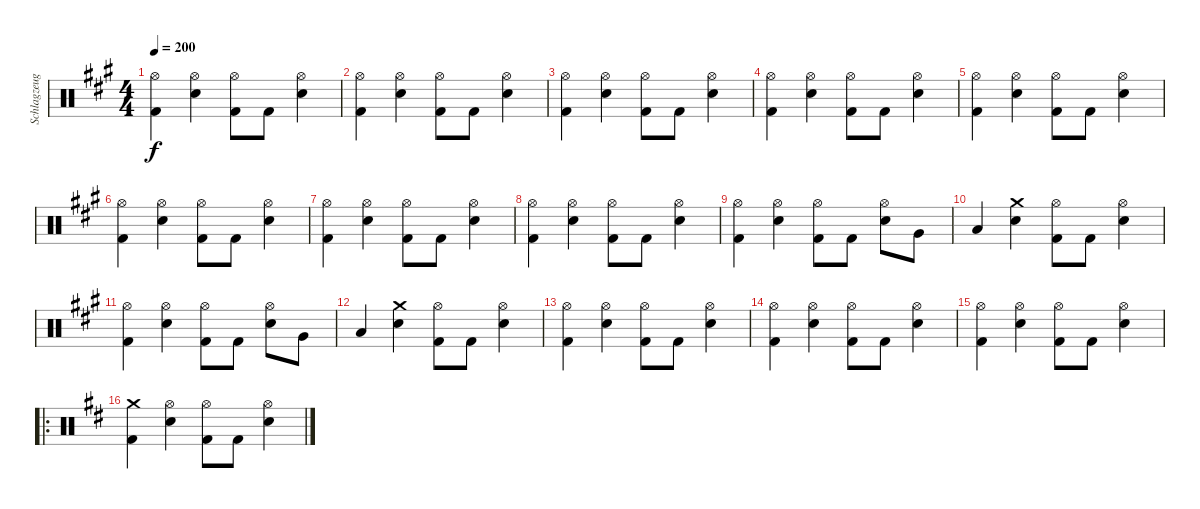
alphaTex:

\track ("Schlagzeug" "Schlagzeug") {instrument percussion}
\staff {score}
\articulation defaults
\ts (4 4)
\tempo 200
\clef neutral
\ks a
("Hi-Hat (open)" "Kick (hit) 2").4{dy f} ("Hi-Hat (open)" "Snare (hit) 2").4 ("Hi-Hat (open)" "Kick (hit) 2").8 "Kick (hit) 2".8 ("Hi-Hat (open)" "Snare (hit) 2").4 |
("Hi-Hat (open)" "Kick (hit) 2").4 ("Hi-Hat (open)" "Snare (hit) 2").4 ("Hi-Hat (open)" "Kick (hit) 2").8 "Kick (hit) 2".8 ("Hi-Hat (open)" "Snare (hit) 2").4 |
("Hi-Hat (open)" "Kick (hit) 2").4 ("Hi-Hat (open)" "Snare (hit) 2").4 ("Hi-Hat (open)" "Kick (hit) 2").8 "Kick (hit) 2".8 ("Hi-Hat (open)" "Snare (hit) 2").4 |
("Hi-Hat (open)" "Kick (hit) 2").4 ("Hi-Hat (open)" "Snare (hit) 2").4 ("Hi-Hat (open)" "Kick (hit) 2").8 "Kick (hit) 2".8 ("Hi-Hat (open)" "Snare (hit) 2").4 |
("Hi-Hat (open)" "Kick (hit) 2").4 ("Hi-Hat (open)" "Snare (hit) 2").4 ("Hi-Hat (open)" "Kick (hit) 2").8 "Kick (hit) 2".8 ("Hi-Hat (open)" "Snare (hit) 2").4 |
("Hi-Hat (open)" "Kick (hit) 2").4 ("Hi-Hat (open)" "Snare (hit) 2").4 ("Hi-Hat (open)" "Kick (hit) 2").8 "Kick (hit) 2".8 ("Hi-Hat (open)" "Snare (hit) 2").4 |
("Hi-Hat (open)" "Kick (hit) 2").4 ("Hi-Hat (open)" "Snare (hit) 2").4 ("Hi-Hat (open)" "Kick (hit) 2").8 "Kick (hit) 2".8 ("Hi-Hat (open)" "Snare (hit) 2").4 |
("Hi-Hat (open)" "Kick (hit) 2").4 ("Hi-Hat (open)" "Snare (hit) 2").4 ("Hi-Hat (open)" "Kick (hit) 2").8 "Kick (hit) 2".8 ("Hi-Hat (open)" "Snare (hit) 2").4 |
("Hi-Hat (open)" "Kick (hit) 2").4 ("Hi-Hat (open)" "Snare (hit) 2").4 ("Hi-Hat (open)" "Kick (hit) 2").8 "Kick (hit) 2".8 ("Hi-Hat (open)" "Snare (hit) 2").8 "Very Low Tom (hit)".8 |
"Low Floor Tom (hit)".4 ("Crash medium (hit)" "Snare (hit) 2").4 ("Hi-Hat (open)" "Kick (hit) 2").8 "Kick (hit) 2".8 ("Hi-Hat (open)" "Snare (hit) 2").4 |
("Hi-Hat (open)" "Kick (hit) 2").4 ("Hi-Hat (open)" "Snare (hit) 2").4 ("Hi-Hat (open)" "Kick (hit) 2").8 "Kick (hit) 2".8 ("Hi-Hat (open)" "Snare (hit) 2").8 "Very Low Tom (hit)".8 |
"Low Floor Tom (hit)".4 ("Crash medium (hit)" "Snare (hit) 2").4 ("Hi-Hat (open)" "Kick (hit) 2").8 "Kick (hit) 2".8 ("Hi-Hat (open)" "Snare (hit) 2").4 |
("Hi-Hat (open)" "Kick (hit) 2").4 ("Hi-Hat (open)" "Snare (hit) 2").4 ("Hi-Hat (open)" "Kick (hit) 2").8 "Kick (hit) 2".8 ("Hi-Hat (open)" "Snare (hit) 2").4 |
("Hi-Hat (open)" "Kick (hit) 2").4 ("Hi-Hat (open)" "Snare (hit) 2").4 ("Hi-Hat (open)" "Kick (hit) 2").8 "Kick (hit) 2".8 ("Hi-Hat (open)" "Snare (hit) 2").4 |
("Hi-Hat (open)" "Kick (hit) 2").4 ("Hi-Hat (open)" "Snare (hit) 2").4 ("Hi-Hat (open)" "Kick (hit) 2").8 "Kick (hit) 2".8 ("Hi-Hat (open)" "Snare (hit) 2").4 |
\ro
\ks d
("Crash medium (hit)" "Kick (hit) 2").4 ("Hi-Hat (open)" "Snare (hit) 2").4 ("Hi-Hat (open)" "Kick (hit) 2").8 "Kick (hit) 2".8 ("Hi-Hat (open)" "Snare (hit) 2").4
